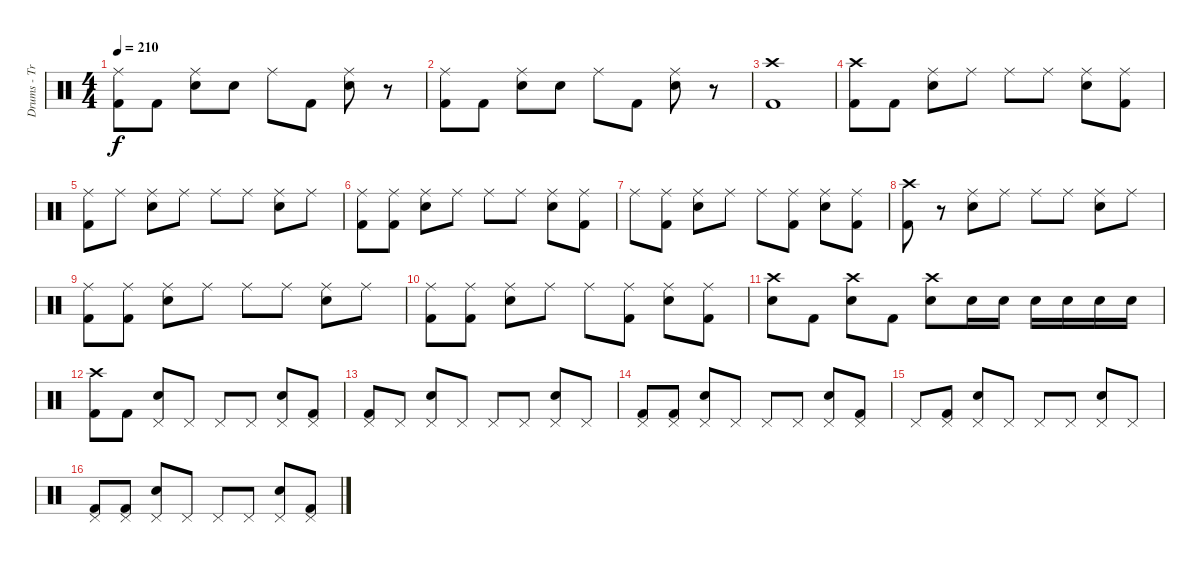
\track ("Drums - Travis Barker" "Drums - Tr") {instrument percussion}
\staff {score}
\articulation defaults
\ts (4 4)
\tempo 210
\clef neutral
\ks c
("Ride (middle)" "Kick (hit) 2").8{dy f} "Kick (hit) 2".8 ("Ride (middle)" "Electric Snare (hit)").8 "Electric Snare (hit)".8 "Ride (middle)".8 "Kick (hit) 2".8 ("Ride (middle)" "Electric Snare (hit)").8 r.8 |
("Ride (middle)" "Kick (hit) 2").8 "Kick (hit) 2".8 ("Ride (middle)" "Electric Snare (hit)").8 "Electric Snare (hit)".8 "Ride (middle)".8 "Kick (hit) 2".8 ("Ride (middle)" "Electric Snare (hit)").8 r.8 |
("Crash high (hit)" "Kick (hit) 2").1 |
("Crash high (hit)" "Kick (hit) 2").8 "Kick (hit) 2".8 ("Ride (middle)" "Electric Snare (hit)").8 "Ride (middle)".8 "Ride (middle)".8 "Ride (middle)".8 ("Ride (middle)" "Electric Snare (hit)").8 ("Ride (middle)" "Kick (hit) 2").8 |
("Ride (middle)" "Kick (hit) 2").8 "Ride (middle)".8 ("Ride (middle)" "Electric Snare (hit)").8 "Ride (middle)".8 "Ride (middle)".8 "Ride (middle)".8 ("Ride (middle)" "Electric Snare (hit)").8 "Ride (middle)".8 |
("Ride (middle)" "Kick (hit) 2").8 ("Ride (middle)" "Kick (hit) 2").8 ("Ride (middle)" "Electric Snare (hit)").8 "Ride (middle)".8 "Ride (middle)".8 "Ride (middle)".8 ("Ride (middle)" "Electric Snare (hit)").8 ("Ride (middle)" "Kick (hit) 2").8 |
"Ride (middle)".8 ("Ride (middle)" "Kick (hit) 2").8 ("Ride (middle)" "Electric Snare (hit)").8 "Ride (middle)".8 "Ride (middle)".8 ("Ride (middle)" "Kick (hit) 2").8 ("Ride (middle)" "Electric Snare (hit)").8 ("Ride (middle)" "Kick (hit) 2").8 |
("Crash high (hit)" "Kick (hit) 2").8 r.8 ("Ride (middle)" "Electric Snare (hit)").8 "Ride (middle)".8 "Ride (middle)".8 "Ride (middle)".8 ("Ride (middle)" "Electric Snare (hit)").8 "Ride (middle)".8 |
("Ride (middle)" "Kick (hit) 2").8 ("Ride (middle)" "Kick (hit) 2").8 ("Ride (middle)" "Electric Snare (hit)").8 "Ride (middle)".8 "Ride (middle)".8 "Ride (middle)".8 ("Ride (middle)" "Electric Snare (hit)").8 "Ride (middle)".8 |
("Ride (middle)" "Kick (hit) 2").8 ("Ride (middle)" "Kick (hit) 2").8 ("Ride (middle)" "Electric Snare (hit)").8 "Ride (middle)".8 "Ride (middle)".8 ("Ride (middle)" "Kick (hit) 2").8 ("Ride (middle)" "Electric Snare (hit)").8 ("Ride (middle)" "Kick (hit) 2").8 |
("Crash high (hit)" "Electric Snare (hit)").8 "Kick (hit) 2".8 ("Crash high (hit)" "Electric Snare (hit)").8 "Kick (hit) 2".8 ("Crash high (hit)" "Electric Snare (hit)").8 "Electric Snare (hit)".16 "Electric Snare (hit)".16 "Electric Snare (hit)".16 "Electric Snare (hit)".16 "Electric Snare (hit)".16 "Electric Snare (hit)".16 |
("Crash high (hit)" "Kick (hit) 2").8 "Kick (hit) 2".8 ("Pedal Hi-Hat (hit)" "Electric Snare (hit)").8 "Pedal Hi-Hat (hit)".8 "Pedal Hi-Hat (hit)".8 "Pedal Hi-Hat (hit)".8 ("Pedal Hi-Hat (hit)" "Electric Snare (hit)").8 ("Pedal Hi-Hat (hit)" "Kick (hit) 2").8 |
("Pedal Hi-Hat (hit)" "Kick (hit) 2").8 "Pedal Hi-Hat (hit)".8 ("Pedal Hi-Hat (hit)" "Electric Snare (hit)").8 "Pedal Hi-Hat (hit)".8 "Pedal Hi-Hat (hit)".8 "Pedal Hi-Hat (hit)".8 ("Pedal Hi-Hat (hit)" "Electric Snare (hit)").8 "Pedal Hi-Hat (hit)".8 |
("Pedal Hi-Hat (hit)" "Kick (hit) 2").8 ("Pedal Hi-Hat (hit)" "Kick (hit) 2").8 ("Pedal Hi-Hat (hit)" "Electric Snare (hit)").8 "Pedal Hi-Hat (hit)".8 "Pedal Hi-Hat (hit)".8 "Pedal Hi-Hat (hit)".8 ("Pedal Hi-Hat (hit)" "Electric Snare (hit)").8 ("Pedal Hi-Hat (hit)" "Kick (hit) 2").8 |
"Pedal Hi-Hat (hit)".8 ("Pedal Hi-Hat (hit)" "Kick (hit) 2").8 ("Pedal Hi-Hat (hit)" "Electric Snare (hit)").8 "Pedal Hi-Hat (hit)".8 "Pedal Hi-Hat (hit)".8 "Pedal Hi-Hat (hit)".8 ("Pedal Hi-Hat (hit)" "Electric Snare (hit)").8 "Pedal Hi-Hat (hit)".8 |
("Pedal Hi-Hat (hit)" "Kick (hit) 2").8 ("Pedal Hi-Hat (hit)" "Kick (hit) 2").8 ("Pedal Hi-Hat (hit)" "Electric Snare (hit)").8 "Pedal Hi-Hat (hit)".8 "Pedal Hi-Hat (hit)".8 "Pedal Hi-Hat (hit)".8 ("Pedal Hi-Hat (hit)" "Electric Snare (hit)").8 ("Pedal Hi-Hat (hit)" "Kick (hit) 2").8
